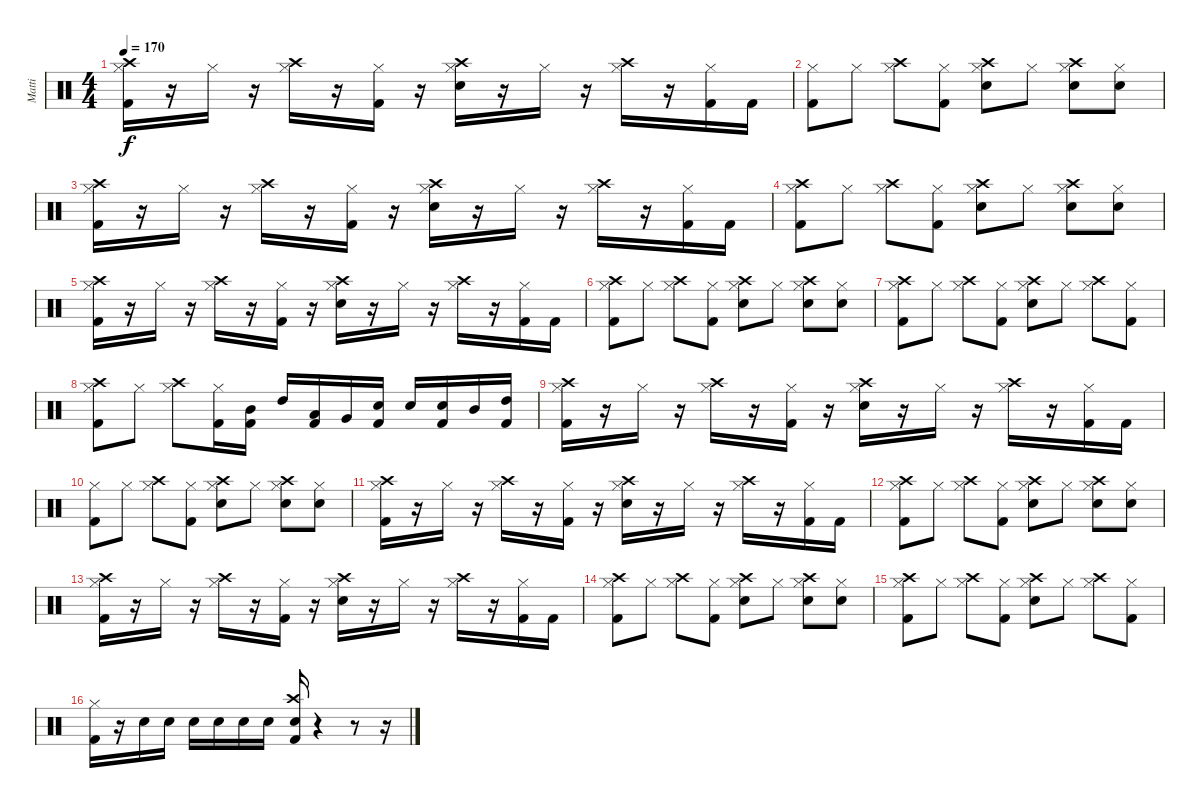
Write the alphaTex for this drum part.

\track ("Matti" "Matti") {instrument percussion}
\staff {score}
\articulation defaults
\ts (4 4)
\tempo 170
\clef neutral
\ks c
("Kick (hit) 2" "Hi-Hat (closed)" "Crash high (hit)").16{dy f} r.16 "Hi-Hat (closed)".16 r.16 ("Hi-Hat (closed)" "Crash high (hit)").16 r.16 ("Kick (hit) 2" "Hi-Hat (closed)").16 r.16 ("Snare (hit) 2" "Hi-Hat (closed)" "Crash high (hit)").16 r.16 "Hi-Hat (closed)".16 r.16 ("Hi-Hat (closed)" "Crash high (hit)").16 r.16 ("Kick (hit) 2" "Hi-Hat (closed)").16 "Kick (hit) 2".16 |
("Kick (hit) 2" "Hi-Hat (closed)").8 "Hi-Hat (closed)".8 ("Hi-Hat (closed)" "Crash high (hit)").8 ("Kick (hit) 2" "Hi-Hat (closed)").8 ("Snare (hit) 2" "Hi-Hat (closed)" "Crash high (hit)").8 "Hi-Hat (closed)".8 ("Snare (hit) 2" "Hi-Hat (closed)" "Crash high (hit)").8 ("Snare (hit) 2" "Hi-Hat (closed)").8 |
("Kick (hit) 2" "Hi-Hat (closed)" "Crash high (hit)").16 r.16 "Hi-Hat (closed)".16 r.16 ("Hi-Hat (closed)" "Crash high (hit)").16 r.16 ("Kick (hit) 2" "Hi-Hat (closed)").16 r.16 ("Snare (hit) 2" "Hi-Hat (closed)" "Crash high (hit)").16 r.16 "Hi-Hat (closed)".16 r.16 ("Hi-Hat (closed)" "Crash high (hit)").16 r.16 ("Kick (hit) 2" "Hi-Hat (closed)").16 "Kick (hit) 2".16 |
("Kick (hit) 2" "Hi-Hat (closed)" "Crash high (hit)").8 "Hi-Hat (closed)".8 ("Hi-Hat (closed)" "Crash high (hit)").8 ("Kick (hit) 2" "Hi-Hat (closed)").8 ("Snare (hit) 2" "Hi-Hat (closed)" "Crash high (hit)").8 "Hi-Hat (closed)".8 ("Snare (hit) 2" "Hi-Hat (closed)" "Crash high (hit)").8 ("Snare (hit) 2" "Hi-Hat (closed)").8 |
("Kick (hit) 2" "Hi-Hat (closed)" "Crash high (hit)").16 r.16 "Hi-Hat (closed)".16 r.16 ("Hi-Hat (closed)" "Crash high (hit)").16 r.16 ("Kick (hit) 2" "Hi-Hat (closed)").16 r.16 ("Snare (hit) 2" "Hi-Hat (closed)" "Crash high (hit)").16 r.16 "Hi-Hat (closed)".16 r.16 ("Hi-Hat (closed)" "Crash high (hit)").16 r.16 ("Kick (hit) 2" "Hi-Hat (closed)").16 "Kick (hit) 2".16 |
("Kick (hit) 2" "Hi-Hat (closed)" "Crash high (hit)").8 "Hi-Hat (closed)".8 ("Hi-Hat (closed)" "Crash high (hit)").8 ("Kick (hit) 2" "Hi-Hat (closed)").8 ("Snare (hit) 2" "Hi-Hat (closed)" "Crash high (hit)").8 "Hi-Hat (closed)".8 ("Snare (hit) 2" "Hi-Hat (closed)" "Crash high (hit)").8 ("Snare (hit) 2" "Hi-Hat (closed)").8 |
("Kick (hit) 2" "Hi-Hat (closed)" "Crash high (hit)").8 "Hi-Hat (closed)".8 ("Hi-Hat (closed)" "Crash high (hit)").8 ("Kick (hit) 2" "Hi-Hat (closed)").8 ("Snare (hit) 2" "Hi-Hat (closed)" "Crash high (hit)").8 "Hi-Hat (closed)".8 ("Hi-Hat (closed)" "Crash high (hit)").8 ("Kick (hit) 2" "Hi-Hat (closed)").8 |
("Kick (hit) 2" "Hi-Hat (closed)" "Crash high (hit)").8 "Hi-Hat (closed)".8 ("Hi-Hat (closed)" "Crash high (hit)").8 ("Kick (hit) 2" "Hi-Hat (closed)").16 ("Mid Tom (hit)" "Kick (hit) 2").16 "High Tom (hit)".16 ("Low Tom (hit)" "Kick (hit) 2").16 "Very Low Tom (hit)".16 ("Electric Snare (hit)" "Kick (hit) 2").16 "Snare (hit) 2".16 ("Snare (hit) 2" "Kick (hit) 2").16 "Mid Tom (hit)".16 ("High Tom (hit)" "Kick (hit) 2").16 |
("Kick (hit) 2" "Hi-Hat (closed)" "Crash high (hit)").16 r.16 "Hi-Hat (closed)".16 r.16 ("Hi-Hat (closed)" "Crash high (hit)").16 r.16 ("Kick (hit) 2" "Hi-Hat (closed)").16 r.16 ("Snare (hit) 2" "Hi-Hat (closed)" "Crash high (hit)").16 r.16 "Hi-Hat (closed)".16 r.16 ("Hi-Hat (closed)" "Crash high (hit)").16 r.16 ("Kick (hit) 2" "Hi-Hat (closed)").16 "Kick (hit) 2".16 |
("Kick (hit) 2" "Hi-Hat (closed)").8 "Hi-Hat (closed)".8 ("Hi-Hat (closed)" "Crash high (hit)").8 ("Kick (hit) 2" "Hi-Hat (closed)").8 ("Snare (hit) 2" "Hi-Hat (closed)" "Crash high (hit)").8 "Hi-Hat (closed)".8 ("Snare (hit) 2" "Hi-Hat (closed)" "Crash high (hit)").8 ("Snare (hit) 2" "Hi-Hat (closed)").8 |
("Kick (hit) 2" "Hi-Hat (closed)" "Crash high (hit)").16 r.16 "Hi-Hat (closed)".16 r.16 ("Hi-Hat (closed)" "Crash high (hit)").16 r.16 ("Kick (hit) 2" "Hi-Hat (closed)").16 r.16 ("Snare (hit) 2" "Hi-Hat (closed)" "Crash high (hit)").16 r.16 "Hi-Hat (closed)".16 r.16 ("Hi-Hat (closed)" "Crash high (hit)").16 r.16 ("Kick (hit) 2" "Hi-Hat (closed)").16 "Kick (hit) 2".16 |
("Kick (hit) 2" "Hi-Hat (closed)" "Crash high (hit)").8 "Hi-Hat (closed)".8 ("Hi-Hat (closed)" "Crash high (hit)").8 ("Kick (hit) 2" "Hi-Hat (closed)").8 ("Snare (hit) 2" "Hi-Hat (closed)" "Crash high (hit)").8 "Hi-Hat (closed)".8 ("Snare (hit) 2" "Hi-Hat (closed)" "Crash high (hit)").8 ("Snare (hit) 2" "Hi-Hat (closed)").8 |
("Kick (hit) 2" "Hi-Hat (closed)" "Crash high (hit)").16 r.16 "Hi-Hat (closed)".16 r.16 ("Hi-Hat (closed)" "Crash high (hit)").16 r.16 ("Kick (hit) 2" "Hi-Hat (closed)").16 r.16 ("Snare (hit) 2" "Hi-Hat (closed)" "Crash high (hit)").16 r.16 "Hi-Hat (closed)".16 r.16 ("Hi-Hat (closed)" "Crash high (hit)").16 r.16 ("Kick (hit) 2" "Hi-Hat (closed)").16 "Kick (hit) 2".16 |
("Kick (hit) 2" "Hi-Hat (closed)" "Crash high (hit)").8 "Hi-Hat (closed)".8 ("Hi-Hat (closed)" "Crash high (hit)").8 ("Kick (hit) 2" "Hi-Hat (closed)").8 ("Snare (hit) 2" "Hi-Hat (closed)" "Crash high (hit)").8 "Hi-Hat (closed)".8 ("Snare (hit) 2" "Hi-Hat (closed)" "Crash high (hit)").8 ("Snare (hit) 2" "Hi-Hat (closed)").8 |
("Kick (hit) 2" "Hi-Hat (closed)" "Crash high (hit)").8 "Hi-Hat (closed)".8 ("Hi-Hat (closed)" "Crash high (hit)").8 ("Kick (hit) 2" "Hi-Hat (closed)").8 ("Snare (hit) 2" "Hi-Hat (closed)" "Crash high (hit)").8 "Hi-Hat (closed)".8 ("Hi-Hat (closed)" "Crash high (hit)").8 ("Kick (hit) 2" "Hi-Hat (closed)").8 |
("Kick (hit) 2" "Hi-Hat (closed)").16 r.16 "Snare (hit) 2".16 "Snare (hit) 2".16 "Snare (hit) 2".16 "Snare (hit) 2".16 "Snare (hit) 2".16 "Snare (hit) 2".16 ("Snare (hit) 2" "Crash high (hit)" "Kick (hit) 2").16 r.4 r.8 r.16
